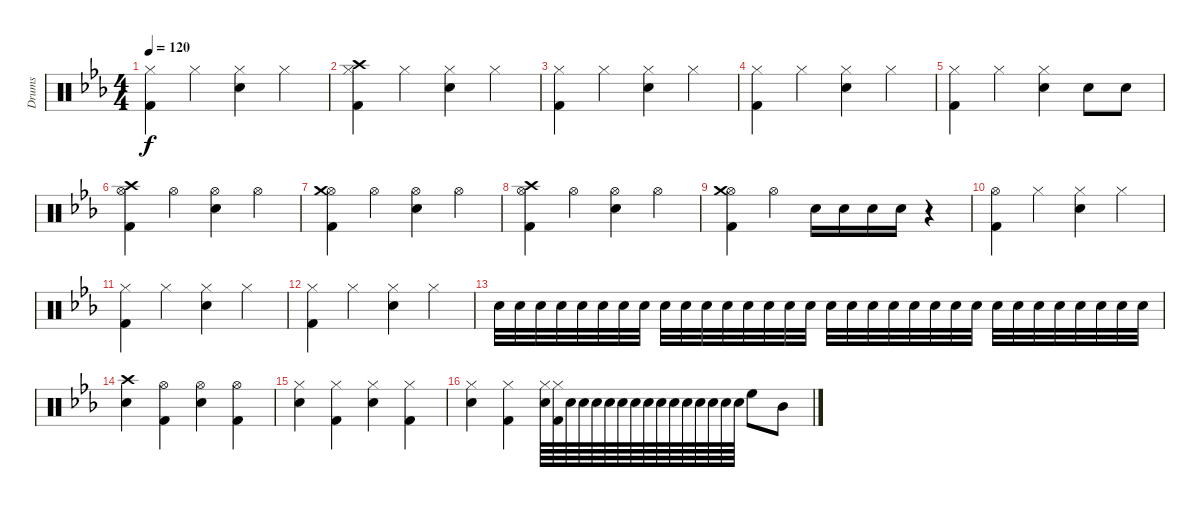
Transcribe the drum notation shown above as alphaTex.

\track ("Drums" "Drums") {instrument percussion}
\staff {score}
\articulation defaults
\ts (4 4)
\tempo 120
\clef neutral
\ks cminor
("Hi-Hat (closed)" "Kick (hit) 2").4{dy f} "Hi-Hat (closed)".4 ("Hi-Hat (closed)" "Snare (hit) 2").4 "Hi-Hat (closed)".4 |
("Hi-Hat (closed)" "Crash high (hit)" "Kick (hit) 2").4 "Hi-Hat (closed)".4 ("Hi-Hat (closed)" "Snare (hit) 2").4 "Hi-Hat (closed)".4 |
("Hi-Hat (closed)" "Kick (hit) 2").4 "Hi-Hat (closed)".4 ("Hi-Hat (closed)" "Snare (hit) 2").4 "Hi-Hat (closed)".4 |
("Hi-Hat (closed)" "Kick (hit) 2").4 "Hi-Hat (closed)".4 ("Hi-Hat (closed)" "Snare (hit) 2").4 "Hi-Hat (closed)".4 |
("Hi-Hat (closed)" "Kick (hit) 2").4 "Hi-Hat (closed)".4 ("Hi-Hat (closed)" "Snare (hit) 2").4 "Snare (hit) 2".8 "Snare (hit) 2".8 |
("Hi-Hat (open)" "Crash high (hit)" "Kick (hit) 2").4 "Hi-Hat (open)".4 ("Hi-Hat (open)" "Snare (hit) 2").4 "Hi-Hat (open)".4 |
("Hi-Hat (open)" "Crash medium (hit)" "Kick (hit) 2").4 "Hi-Hat (open)".4 ("Hi-Hat (open)" "Snare (hit) 2").4 "Hi-Hat (open)".4 |
("Hi-Hat (open)" "Crash high (hit)" "Kick (hit) 2").4 "Hi-Hat (open)".4 ("Hi-Hat (open)" "Snare (hit) 2").4 "Hi-Hat (open)".4 |
("Hi-Hat (open)" "Crash medium (hit)" "Kick (hit) 2").4 "Hi-Hat (open)".4 "Snare (hit) 2".16 "Snare (hit) 2".16 "Snare (hit) 2".16 "Snare (hit) 2".16 r.4 |
("Hi-Hat (open)" "Kick (hit) 2").4 "Hi-Hat (closed)".4 ("Hi-Hat (closed)" "Snare (hit) 2").4 "Hi-Hat (closed)".4 |
("Hi-Hat (closed)" "Kick (hit) 2").4 "Hi-Hat (closed)".4 ("Hi-Hat (closed)" "Snare (hit) 2").4 "Hi-Hat (closed)".4 |
("Hi-Hat (closed)" "Kick (hit) 2").4 "Hi-Hat (closed)".4 ("Hi-Hat (closed)" "Snare (hit) 2").4 "Hi-Hat (closed)".4 |
"Snare (hit) 2".32 "Snare (hit) 2".32 "Snare (hit) 2".32 "Snare (hit) 2".32 "Snare (hit) 2".32 "Snare (hit) 2".32 "Snare (hit) 2".32 "Snare (hit) 2".32 "Snare (hit) 2".32 "Snare (hit) 2".32 "Snare (hit) 2".32 "Snare (hit) 2".32 "Snare (hit) 2".32 "Snare (hit) 2".32 "Snare (hit) 2".32 "Snare (hit) 2".32 "Snare (hit) 2".32 "Snare (hit) 2".32 "Snare (hit) 2".32 "Snare (hit) 2".32 "Snare (hit) 2".32 "Snare (hit) 2".32 "Snare (hit) 2".32 "Snare (hit) 2".32 "Snare (hit) 2".32 "Snare (hit) 2".32 "Snare (hit) 2".32 "Snare (hit) 2".32 "Snare (hit) 2".32 "Snare (hit) 2".32 "Snare (hit) 2".32 "Snare (hit) 2".32 |
("Crash high (hit)" "Snare (hit) 2").4 ("Hi-Hat (open)" "Kick (hit) 2").4 ("Hi-Hat (open)" "Snare (hit) 2").4 ("Hi-Hat (open)" "Kick (hit) 2").4 |
("Hi-Hat (closed)" "Snare (hit) 2").4 ("Hi-Hat (closed)" "Kick (hit) 2").4 ("Hi-Hat (closed)" "Snare (hit) 2").4 ("Hi-Hat (closed)" "Kick (hit) 2").4 |
("Hi-Hat (closed)" "Snare (hit) 2").4 ("Hi-Hat (closed)" "Kick (hit) 2").4 ("Hi-Hat (closed)" "Snare (hit) 2").64 ("Hi-Hat (closed)" "Kick (hit) 2").64 "Snare (hit) 2".64 "Snare (hit) 2".64 "Snare (hit) 2".64 "Snare (hit) 2".64 "Snare (hit) 2".64 "Snare (hit) 2".64 "Snare (hit) 2".64 "Snare (hit) 2".64 "Snare (hit) 2".64 "Snare (hit) 2".64 "Snare (hit) 2".64 "Snare (hit) 2".64 "Snare (hit) 2".64 "Snare (hit) 2".64 "High Floor Tom (hit)".8 "Mid Tom (hit)".8
